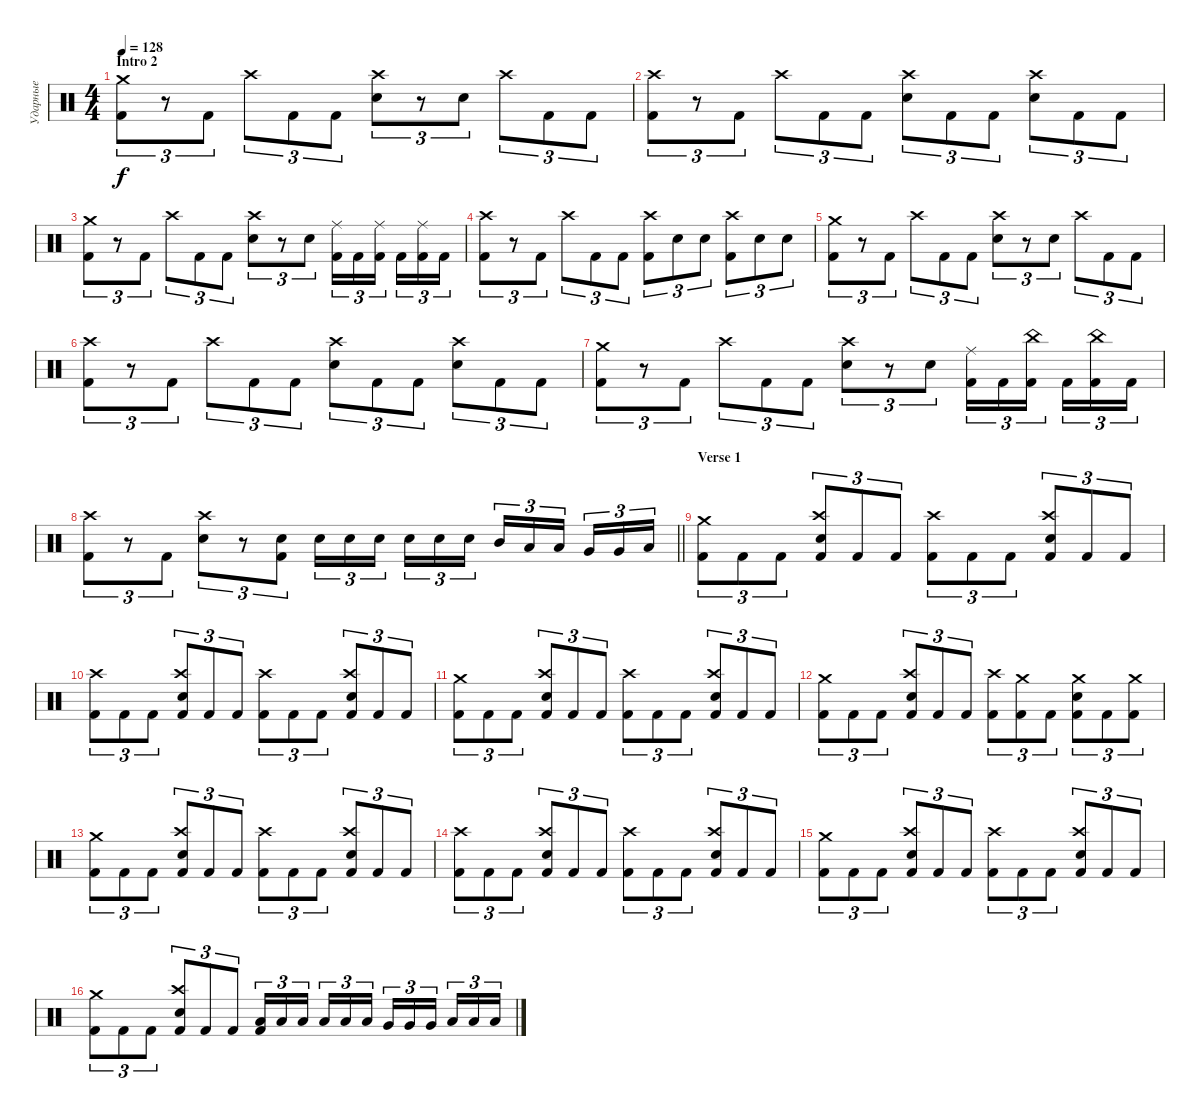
\track ("Ударные" "Ударные") {instrument percussion}
\staff {score}
\articulation defaults
\ts (4 4)
\section ("" "Intro 2")
\tempo 128
\clef neutral
\ks c
("Crash medium (hit)" "Kick (hit) 2").8{tu (3 2) dy f} r.8{tu (3 2)} "Kick (hit) 2".8{tu (3 2)} "Crash high (hit)".8{tu (3 2)} "Kick (hit) 2".8{tu (3 2)} "Kick (hit) 2".8{tu (3 2)} ("Crash high (hit)" "Electric Snare (hit)").8{tu (3 2)} r.8{tu (3 2)} "Electric Snare (hit)".8{tu (3 2)} "Crash high (hit)".8{tu (3 2)} "Kick (hit) 2".8{tu (3 2)} "Kick (hit) 2".8{tu (3 2)} |
("Crash high (hit)" "Kick (hit) 2").8{tu (3 2)} r.8{tu (3 2)} "Kick (hit) 2".8{tu (3 2)} "Crash high (hit)".8{tu (3 2)} "Kick (hit) 2".8{tu (3 2)} "Kick (hit) 2".8{tu (3 2)} ("Crash high (hit)" "Electric Snare (hit)").8{tu (3 2)} "Kick (hit) 2".8{tu (3 2)} "Kick (hit) 2".8{tu (3 2)} ("Crash high (hit)" "Electric Snare (hit)").8{tu (3 2)} "Kick (hit) 2".8{tu (3 2)} "Kick (hit) 2".8{tu (3 2)} |
("Crash medium (hit)" "Kick (hit) 2").8{tu (3 2)} r.8{tu (3 2)} "Kick (hit) 2".8{tu (3 2)} "Crash high (hit)".8{tu (3 2)} "Kick (hit) 2".8{tu (3 2)} "Kick (hit) 2".8{tu (3 2)} ("Crash high (hit)" "Electric Snare (hit)").8{tu (3 2)} r.8{tu (3 2)} "Electric Snare (hit)".8{tu (3 2)} ("Ride (middle)" "Kick (hit) 2").16{tu (3 2)} "Kick (hit) 2".16{tu (3 2)} ("Ride (middle)" "Kick (hit) 2").16{tu (3 2) beam splitsecondary} "Kick (hit) 2".16{tu (3 2)} ("Ride (middle)" "Kick (hit) 2").16{tu (3 2)} "Kick (hit) 2".16{tu (3 2)} |
("Crash high (hit)" "Kick (hit) 2").8{tu (3 2)} r.8{tu (3 2)} "Kick (hit) 2".8{tu (3 2)} "Crash high (hit)".8{tu (3 2)} "Kick (hit) 2".8{tu (3 2)} "Kick (hit) 2".8{tu (3 2)} ("Crash high (hit)" "Kick (hit) 2").8{tu (3 2)} "Electric Snare (hit)".8{tu (3 2)} "Electric Snare (hit)".8{tu (3 2)} ("Crash high (hit)" "Kick (hit) 2").8{tu (3 2)} "Electric Snare (hit)".8{tu (3 2)} "Electric Snare (hit)".8{tu (3 2)} |
("Crash medium (hit)" "Kick (hit) 2").8{tu (3 2)} r.8{tu (3 2)} "Kick (hit) 2".8{tu (3 2)} "Crash high (hit)".8{tu (3 2)} "Kick (hit) 2".8{tu (3 2)} "Kick (hit) 2".8{tu (3 2)} ("Crash high (hit)" "Electric Snare (hit)").8{tu (3 2)} r.8{tu (3 2)} "Electric Snare (hit)".8{tu (3 2)} "Crash high (hit)".8{tu (3 2)} "Kick (hit) 2".8{tu (3 2)} "Kick (hit) 2".8{tu (3 2)} |
("Crash high (hit)" "Kick (hit) 2").8{tu (3 2)} r.8{tu (3 2)} "Kick (hit) 2".8{tu (3 2)} "Crash high (hit)".8{tu (3 2)} "Kick (hit) 2".8{tu (3 2)} "Kick (hit) 2".8{tu (3 2)} ("Crash high (hit)" "Electric Snare (hit)").8{tu (3 2)} "Kick (hit) 2".8{tu (3 2)} "Kick (hit) 2".8{tu (3 2)} ("Crash high (hit)" "Electric Snare (hit)").8{tu (3 2)} "Kick (hit) 2".8{tu (3 2)} "Kick (hit) 2".8{tu (3 2)} |
("Crash medium (hit)" "Kick (hit) 2").8{tu (3 2)} r.8{tu (3 2)} "Kick (hit) 2".8{tu (3 2)} "Crash high (hit)".8{tu (3 2)} "Kick (hit) 2".8{tu (3 2)} "Kick (hit) 2".8{tu (3 2)} ("Crash high (hit)" "Electric Snare (hit)").8{tu (3 2)} r.8{tu (3 2)} "Electric Snare (hit)".8{tu (3 2)} ("Ride (middle)" "Kick (hit) 2").16{tu (3 2)} "Kick (hit) 2".16{tu (3 2)} ("China (hit)" "Kick (hit) 2").16{tu (3 2) beam splitsecondary} "Kick (hit) 2".16{tu (3 2)} ("China (hit)" "Kick (hit) 2").16{tu (3 2)} "Kick (hit) 2".16{tu (3 2)} |
\barLineRight lightlight
("Crash high (hit)" "Kick (hit) 2").8{tu (3 2)} r.8{tu (3 2)} "Kick (hit) 2".8{tu (3 2)} ("Crash high (hit)" "Electric Snare (hit)").8{tu (3 2)} r.8{tu (3 2)} ("Electric Snare (hit)" "Kick (hit) 2").8{tu (3 2)} "Electric Snare (hit)".16{tu (3 2)} "Electric Snare (hit)".16{tu (3 2)} "Electric Snare (hit)".16{tu (3 2) beam splitsecondary} "Electric Snare (hit)".16{tu (3 2)} "Electric Snare (hit)".16{tu (3 2)} "Electric Snare (hit)".16{tu (3 2)} "Mid Tom (hit)".16{tu (3 2)} "Low Tom (hit)".16{tu (3 2)} "Low Tom (hit)".16{tu (3 2) beam splitsecondary} "Very Low Tom (hit)".16{tu (3 2)} "Very Low Tom (hit)".16{tu (3 2)} "Low Floor Tom (hit)".16{tu (3 2)} |
\section ("" "Verse 1")
("Crash medium (hit)" "Kick (hit) 2").8{tu (3 2)} "Kick (hit) 2".8{tu (3 2)} "Kick (hit) 2".8{tu (3 2)} ("Crash high (hit)" "Electric Snare (hit)" "Kick (hit) 2").8{tu (3 2)} "Kick (hit) 2".8{tu (3 2)} "Kick (hit) 2".8{tu (3 2)} ("Crash high (hit)" "Kick (hit) 2").8{tu (3 2)} "Kick (hit) 2".8{tu (3 2)} "Kick (hit) 2".8{tu (3 2)} ("Crash high (hit)" "Electric Snare (hit)" "Kick (hit) 2").8{tu (3 2)} "Kick (hit) 2".8{tu (3 2)} "Kick (hit) 2".8{tu (3 2)} |
("Crash high (hit)" "Kick (hit) 2").8{tu (3 2)} "Kick (hit) 2".8{tu (3 2)} "Kick (hit) 2".8{tu (3 2)} ("Crash high (hit)" "Electric Snare (hit)" "Kick (hit) 2").8{tu (3 2)} "Kick (hit) 2".8{tu (3 2)} "Kick (hit) 2".8{tu (3 2)} ("Crash high (hit)" "Kick (hit) 2").8{tu (3 2)} "Kick (hit) 2".8{tu (3 2)} "Kick (hit) 2".8{tu (3 2)} ("Crash high (hit)" "Electric Snare (hit)" "Kick (hit) 2").8{tu (3 2)} "Kick (hit) 2".8{tu (3 2)} "Kick (hit) 2".8{tu (3 2)} |
("Crash medium (hit)" "Kick (hit) 2").8{tu (3 2)} "Kick (hit) 2".8{tu (3 2)} "Kick (hit) 2".8{tu (3 2)} ("Crash high (hit)" "Electric Snare (hit)" "Kick (hit) 2").8{tu (3 2)} "Kick (hit) 2".8{tu (3 2)} "Kick (hit) 2".8{tu (3 2)} ("Crash high (hit)" "Kick (hit) 2").8{tu (3 2)} "Kick (hit) 2".8{tu (3 2)} "Kick (hit) 2".8{tu (3 2)} ("Crash high (hit)" "Electric Snare (hit)" "Kick (hit) 2").8{tu (3 2)} "Kick (hit) 2".8{tu (3 2)} "Kick (hit) 2".8{tu (3 2)} |
("Crash medium (hit)" "Kick (hit) 2").8{tu (3 2)} "Kick (hit) 2".8{tu (3 2)} "Kick (hit) 2".8{tu (3 2)} ("Crash high (hit)" "Electric Snare (hit)" "Kick (hit) 2").8{tu (3 2)} "Kick (hit) 2".8{tu (3 2)} "Kick (hit) 2".8{tu (3 2)} ("Crash high (hit)" "Kick (hit) 2").8{tu (3 2)} ("Crash medium (hit)" "Kick (hit) 2").8{tu (3 2)} "Kick (hit) 2".8{tu (3 2)} ("Crash medium (hit)" "Electric Snare (hit)" "Kick (hit) 2").8{tu (3 2)} "Kick (hit) 2".8{tu (3 2)} ("Crash medium (hit)" "Kick (hit) 2").8{tu (3 2)} |
("Crash medium (hit)" "Kick (hit) 2").8{tu (3 2)} "Kick (hit) 2".8{tu (3 2)} "Kick (hit) 2".8{tu (3 2)} ("Crash high (hit)" "Electric Snare (hit)" "Kick (hit) 2").8{tu (3 2)} "Kick (hit) 2".8{tu (3 2)} "Kick (hit) 2".8{tu (3 2)} ("Crash high (hit)" "Kick (hit) 2").8{tu (3 2)} "Kick (hit) 2".8{tu (3 2)} "Kick (hit) 2".8{tu (3 2)} ("Crash high (hit)" "Electric Snare (hit)" "Kick (hit) 2").8{tu (3 2)} "Kick (hit) 2".8{tu (3 2)} "Kick (hit) 2".8{tu (3 2)} |
("Crash high (hit)" "Kick (hit) 2").8{tu (3 2)} "Kick (hit) 2".8{tu (3 2)} "Kick (hit) 2".8{tu (3 2)} ("Crash high (hit)" "Electric Snare (hit)" "Kick (hit) 2").8{tu (3 2)} "Kick (hit) 2".8{tu (3 2)} "Kick (hit) 2".8{tu (3 2)} ("Crash high (hit)" "Kick (hit) 2").8{tu (3 2)} "Kick (hit) 2".8{tu (3 2)} "Kick (hit) 2".8{tu (3 2)} ("Crash high (hit)" "Electric Snare (hit)" "Kick (hit) 2").8{tu (3 2)} "Kick (hit) 2".8{tu (3 2)} "Kick (hit) 2".8{tu (3 2)} |
("Crash medium (hit)" "Kick (hit) 2").8{tu (3 2)} "Kick (hit) 2".8{tu (3 2)} "Kick (hit) 2".8{tu (3 2)} ("Crash high (hit)" "Electric Snare (hit)" "Kick (hit) 2").8{tu (3 2)} "Kick (hit) 2".8{tu (3 2)} "Kick (hit) 2".8{tu (3 2)} ("Crash high (hit)" "Kick (hit) 2").8{tu (3 2)} "Kick (hit) 2".8{tu (3 2)} "Kick (hit) 2".8{tu (3 2)} ("Crash high (hit)" "Electric Snare (hit)" "Kick (hit) 2").8{tu (3 2)} "Kick (hit) 2".8{tu (3 2)} "Kick (hit) 2".8{tu (3 2)} |
("Crash medium (hit)" "Kick (hit) 2").8{tu (3 2)} "Kick (hit) 2".8{tu (3 2)} "Kick (hit) 2".8{tu (3 2)} ("Crash high (hit)" "Electric Snare (hit)" "Kick (hit) 2").8{tu (3 2)} "Kick (hit) 2".8{tu (3 2)} "Kick (hit) 2".8{tu (3 2)} ("Low Tom (hit)" "Kick (hit) 2").16{tu (3 2)} "Low Tom (hit)".16{tu (3 2)} "Low Tom (hit)".16{tu (3 2) beam splitsecondary} "Low Tom (hit)".16{tu (3 2)} "Low Tom (hit)".16{tu (3 2)} "Low Tom (hit)".16{tu (3 2)} "Very Low Tom (hit)".16{tu (3 2)} "Very Low Tom (hit)".16{tu (3 2)} "Very Low Tom (hit)".16{tu (3 2) beam splitsecondary} "Low Floor Tom (hit)".16{tu (3 2)} "Low Floor Tom (hit)".16{tu (3 2)} "Low Floor Tom (hit)".16{tu (3 2)}
